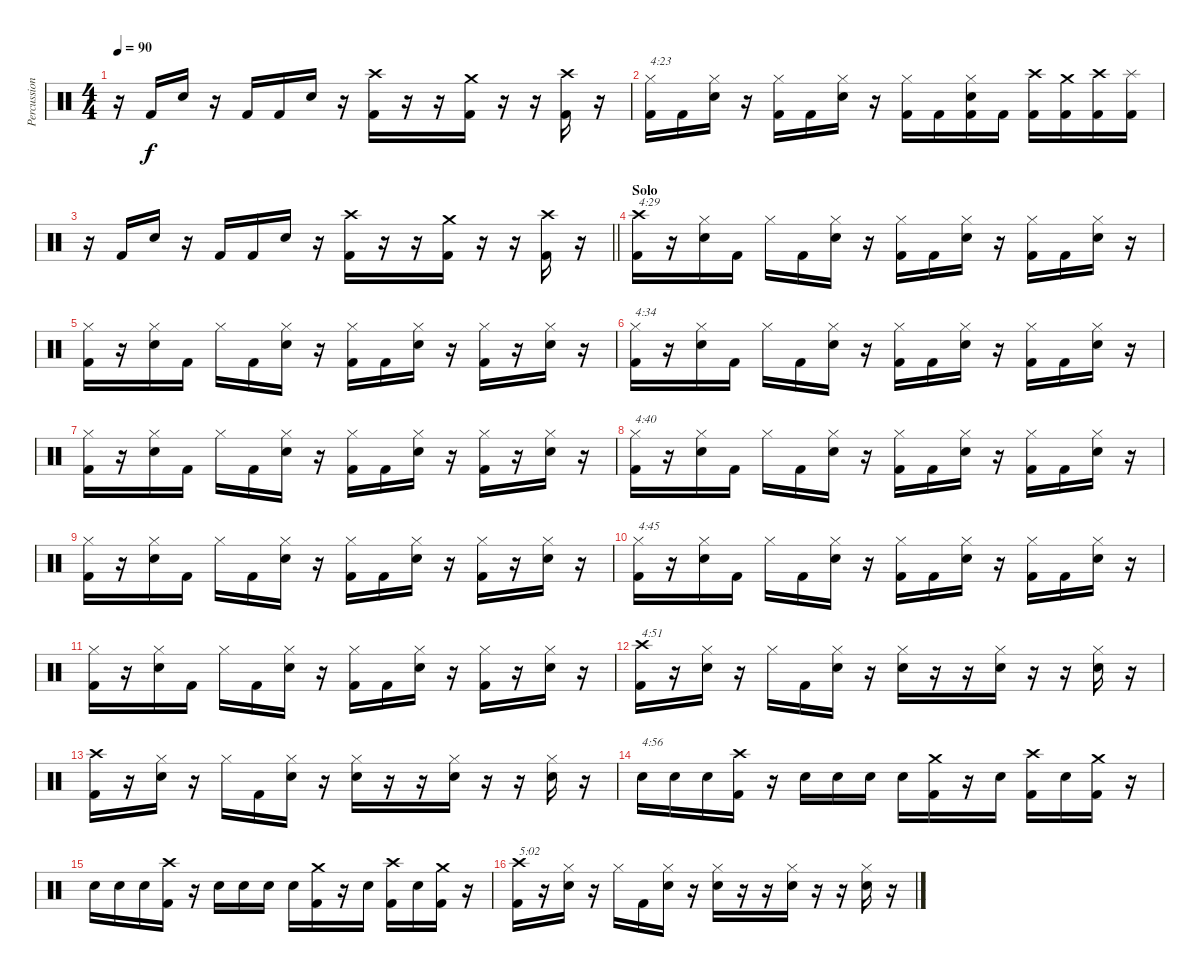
\track ("Percussion" "Percussion") {instrument percussion}
\staff {score}
\articulation defaults
\ts (4 4)
\tempo 90
\clef neutral
\ks c
r.16{dy f} "Kick (hit) 2".16 "Snare (hit) 2".16 r.16 "Kick (hit) 2".16 "Kick (hit) 2".16 "Snare (hit) 2".16 r.16 ("Crash high (hit)" "Kick (hit) 2").16 r.16 r.16 ("Crash medium (hit)" "Kick (hit) 2").16 r.16 r.16 ("Crash high (hit)" "Kick (hit) 2").16 r.16 |
("Hi-Hat (closed)" "Kick (hit) 2").16{txt "4:23"} "Kick (hit) 2".16 ("Hi-Hat (closed)" "Snare (hit) 2").16 r.16 ("Hi-Hat (closed)" "Kick (hit) 2").16 "Kick (hit) 2".16 ("Hi-Hat (closed)" "Snare (hit) 2").16 r.16 ("Hi-Hat (closed)" "Kick (hit) 2").16 "Kick (hit) 2".16 ("Hi-Hat (closed)" "Snare (hit) 2" "Kick (hit) 2").16 "Kick (hit) 2".16 ("Crash high (hit)" "Kick (hit) 2").16 ("Crash medium (hit)" "Kick (hit) 2").16 ("Crash high (hit)" "Kick (hit) 2").16 ("Splash (hit)" "Kick (hit) 2").16 |
\barLineRight lightlight
r.16 "Kick (hit) 2".16 "Snare (hit) 2".16 r.16 "Kick (hit) 2".16 "Kick (hit) 2".16 "Snare (hit) 2".16 r.16 ("Crash high (hit)" "Kick (hit) 2").16 r.16 r.16 ("Crash medium (hit)" "Kick (hit) 2").16 r.16 r.16 ("Crash high (hit)" "Kick (hit) 2").16 r.16 |
\section ("" "Solo")
("Crash high (hit)" "Kick (hit) 2").16{txt "4:29"} r.16 ("Hi-Hat (closed)" "Snare (hit) 2").16 "Kick (hit) 2".16 "Hi-Hat (closed)".16 "Kick (hit) 2".16 ("Hi-Hat (closed)" "Snare (hit) 2").16 r.16 ("Hi-Hat (closed)" "Kick (hit) 2").16 "Kick (hit) 2".16 ("Hi-Hat (closed)" "Snare (hit) 2").16 r.16 ("Hi-Hat (closed)" "Kick (hit) 2").16 "Kick (hit) 2".16 ("Hi-Hat (closed)" "Snare (hit) 2").16 r.16 |
("Hi-Hat (closed)" "Kick (hit) 2").16 r.16 ("Hi-Hat (closed)" "Snare (hit) 2").16 "Kick (hit) 2".16 "Hi-Hat (closed)".16 "Kick (hit) 2".16 ("Hi-Hat (closed)" "Snare (hit) 2").16 r.16 ("Hi-Hat (closed)" "Kick (hit) 2").16 "Kick (hit) 2".16 ("Hi-Hat (closed)" "Snare (hit) 2").16 r.16 ("Hi-Hat (closed)" "Kick (hit) 2").16 r.16 ("Hi-Hat (closed)" "Snare (hit) 2").16 r.16 |
("Hi-Hat (closed)" "Kick (hit) 2").16{txt "4:34"} r.16 ("Hi-Hat (closed)" "Snare (hit) 2").16 "Kick (hit) 2".16 "Hi-Hat (closed)".16 "Kick (hit) 2".16 ("Hi-Hat (closed)" "Snare (hit) 2").16 r.16 ("Hi-Hat (closed)" "Kick (hit) 2").16 "Kick (hit) 2".16 ("Hi-Hat (closed)" "Snare (hit) 2").16 r.16 ("Hi-Hat (closed)" "Kick (hit) 2").16 "Kick (hit) 2".16 ("Hi-Hat (closed)" "Snare (hit) 2").16 r.16 |
("Hi-Hat (closed)" "Kick (hit) 2").16 r.16 ("Hi-Hat (closed)" "Snare (hit) 2").16 "Kick (hit) 2".16 "Hi-Hat (closed)".16 "Kick (hit) 2".16 ("Hi-Hat (closed)" "Snare (hit) 2").16 r.16 ("Hi-Hat (closed)" "Kick (hit) 2").16 "Kick (hit) 2".16 ("Hi-Hat (closed)" "Snare (hit) 2").16 r.16 ("Hi-Hat (closed)" "Kick (hit) 2").16 r.16 ("Hi-Hat (closed)" "Snare (hit) 2").16 r.16 |
("Hi-Hat (closed)" "Kick (hit) 2").16{txt "4:40"} r.16 ("Hi-Hat (closed)" "Snare (hit) 2").16 "Kick (hit) 2".16 "Hi-Hat (closed)".16 "Kick (hit) 2".16 ("Hi-Hat (closed)" "Snare (hit) 2").16 r.16 ("Hi-Hat (closed)" "Kick (hit) 2").16 "Kick (hit) 2".16 ("Hi-Hat (closed)" "Snare (hit) 2").16 r.16 ("Hi-Hat (closed)" "Kick (hit) 2").16 "Kick (hit) 2".16 ("Hi-Hat (closed)" "Snare (hit) 2").16 r.16 |
("Hi-Hat (closed)" "Kick (hit) 2").16 r.16 ("Hi-Hat (closed)" "Snare (hit) 2").16 "Kick (hit) 2".16 "Hi-Hat (closed)".16 "Kick (hit) 2".16 ("Hi-Hat (closed)" "Snare (hit) 2").16 r.16 ("Hi-Hat (closed)" "Kick (hit) 2").16 "Kick (hit) 2".16 ("Hi-Hat (closed)" "Snare (hit) 2").16 r.16 ("Hi-Hat (closed)" "Kick (hit) 2").16 r.16 ("Hi-Hat (closed)" "Snare (hit) 2").16 r.16 |
("Hi-Hat (closed)" "Kick (hit) 2").16{txt "4:45"} r.16 ("Hi-Hat (closed)" "Snare (hit) 2").16 "Kick (hit) 2".16 "Hi-Hat (closed)".16 "Kick (hit) 2".16 ("Hi-Hat (closed)" "Snare (hit) 2").16 r.16 ("Hi-Hat (closed)" "Kick (hit) 2").16 "Kick (hit) 2".16 ("Hi-Hat (closed)" "Snare (hit) 2").16 r.16 ("Hi-Hat (closed)" "Kick (hit) 2").16 "Kick (hit) 2".16 ("Hi-Hat (closed)" "Snare (hit) 2").16 r.16 |
("Hi-Hat (closed)" "Kick (hit) 2").16 r.16 ("Hi-Hat (closed)" "Snare (hit) 2").16 "Kick (hit) 2".16 "Hi-Hat (closed)".16 "Kick (hit) 2".16 ("Hi-Hat (closed)" "Snare (hit) 2").16 r.16 ("Hi-Hat (closed)" "Kick (hit) 2").16 "Kick (hit) 2".16 ("Hi-Hat (closed)" "Snare (hit) 2").16 r.16 ("Hi-Hat (closed)" "Kick (hit) 2").16 r.16 ("Hi-Hat (closed)" "Snare (hit) 2").16 r.16 |
("Crash high (hit)" "Kick (hit) 2").16{txt "4:51"} r.16 ("Hi-Hat (closed)" "Snare (hit) 2").16 r.16 "Hi-Hat (closed)".16 "Kick (hit) 2".16 ("Hi-Hat (closed)" "Snare (hit) 2").16 r.16 ("Hi-Hat (closed)" "Snare (hit) 2").16 r.16 r.16 ("Hi-Hat (closed)" "Snare (hit) 2").16 r.16 r.16 ("Hi-Hat (closed)" "Snare (hit) 2").16 r.16 |
("Crash high (hit)" "Kick (hit) 2").16 r.16 ("Hi-Hat (closed)" "Snare (hit) 2").16 r.16 "Hi-Hat (closed)".16 "Kick (hit) 2".16 ("Hi-Hat (closed)" "Snare (hit) 2").16 r.16 ("Hi-Hat (closed)" "Snare (hit) 2").16 r.16 r.16 ("Hi-Hat (closed)" "Snare (hit) 2").16 r.16 r.16 ("Hi-Hat (closed)" "Snare (hit) 2").16 r.16 |
"Snare (hit) 2".16{txt "4:56"} "Snare (hit) 2".16 "Snare (hit) 2".16 ("Crash high (hit)" "Kick (hit) 2").16 r.16 "Snare (hit) 2".16 "Snare (hit) 2".16 "Snare (hit) 2".16 "Snare (hit) 2".16 ("Crash medium (hit)" "Kick (hit) 2").16 r.16 "Snare (hit) 2".16 ("Crash high (hit)" "Kick (hit) 2").16 "Snare (hit) 2".16 ("Crash medium (hit)" "Kick (hit) 2").16 r.16 |
"Snare (hit) 2".16 "Snare (hit) 2".16 "Snare (hit) 2".16 ("Crash high (hit)" "Kick (hit) 2").16 r.16 "Snare (hit) 2".16 "Snare (hit) 2".16 "Snare (hit) 2".16 "Snare (hit) 2".16 ("Crash medium (hit)" "Kick (hit) 2").16 r.16 "Snare (hit) 2".16 ("Crash high (hit)" "Kick (hit) 2").16 "Snare (hit) 2".16 ("Crash medium (hit)" "Kick (hit) 2").16 r.16 |
("Crash high (hit)" "Kick (hit) 2").16{txt "5:02"} r.16 ("Hi-Hat (closed)" "Snare (hit) 2").16 r.16 "Hi-Hat (closed)".16 "Kick (hit) 2".16 ("Hi-Hat (closed)" "Snare (hit) 2").16 r.16 ("Hi-Hat (closed)" "Snare (hit) 2").16 r.16 r.16 ("Hi-Hat (closed)" "Snare (hit) 2").16 r.16 r.16 ("Hi-Hat (closed)" "Snare (hit) 2").16 r.16
